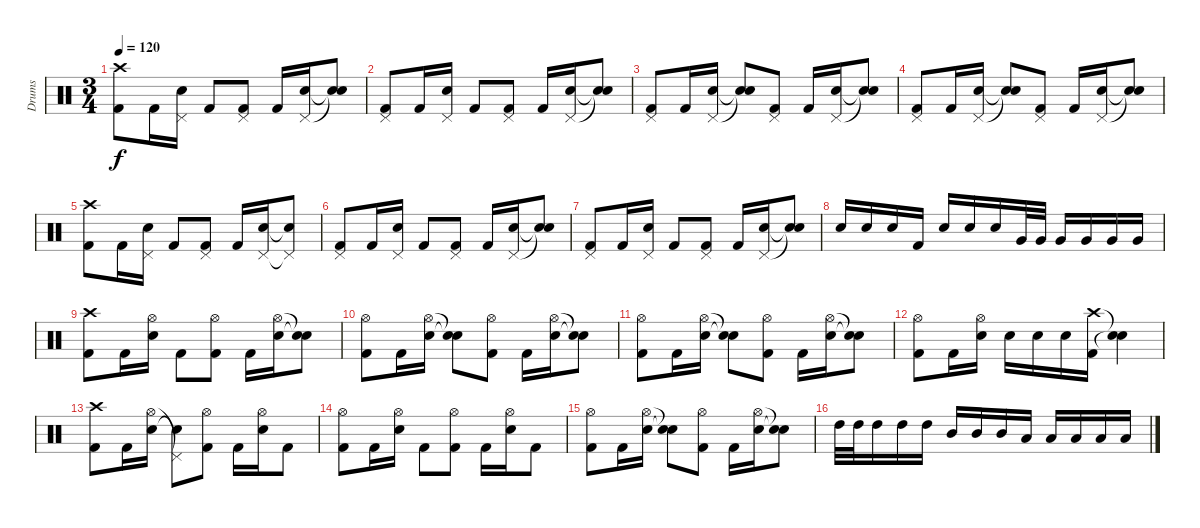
\track ("Drums" "Drums") {instrument percussion}
\staff {score}
\articulation defaults
\ts (3 4)
\tempo 120
\clef neutral
\ks c
("Crash high (hit)" "Kick (hit) 2").8{dy f} "Kick (hit) 2".16 ("Pedal Hi-Hat (hit)" "Electric Snare (hit)").16 "Kick (hit) 2".8 ("Pedal Hi-Hat (hit)" "Kick (hit) 2").8 "Kick (hit) 2".16 ("Pedal Hi-Hat (hit)" "Electric Snare (hit)").16 ("Snare (hit)"{t} "Snare (hit)"{t}).8 |
("Pedal Hi-Hat (hit)" "Kick (hit) 2").8 "Kick (hit) 2".16 ("Pedal Hi-Hat (hit)" "Electric Snare (hit)").16 "Kick (hit) 2".8 ("Pedal Hi-Hat (hit)" "Kick (hit) 2").8 "Kick (hit) 2".16 ("Pedal Hi-Hat (hit)" "Electric Snare (hit)").16 ("Snare (hit)"{t} "Snare (hit)"{t}).8 |
("Pedal Hi-Hat (hit)" "Kick (hit) 2").8 "Kick (hit) 2".16 ("Pedal Hi-Hat (hit)" "Electric Snare (hit)").16 ("Snare (hit)"{t} "Snare (hit)"{t}).8 ("Pedal Hi-Hat (hit)" "Kick (hit) 2").8 "Kick (hit) 2".16 ("Pedal Hi-Hat (hit)" "Electric Snare (hit)").16 ("Snare (hit)"{t} "Snare (hit)"{t}).8 |
("Pedal Hi-Hat (hit)" "Kick (hit) 2").8 "Kick (hit) 2".16 ("Pedal Hi-Hat (hit)" "Electric Snare (hit)").16 ("Snare (hit)"{t} "Snare (hit)"{t}).8 ("Pedal Hi-Hat (hit)" "Kick (hit) 2").8 "Kick (hit) 2".16 ("Pedal Hi-Hat (hit)" "Electric Snare (hit)").16 ("Snare (hit)"{t} "Snare (hit)"{t}).8 |
("Crash high (hit)" "Kick (hit) 2").8 "Kick (hit) 2".16 ("Pedal Hi-Hat (hit)" "Electric Snare (hit)").16 "Kick (hit) 2".8 ("Pedal Hi-Hat (hit)" "Kick (hit) 2").8 "Kick (hit) 2".16 ("Pedal Hi-Hat (hit)" "Electric Snare (hit)").16 ("Pedal Hi-Hat (hit)"{t} "Snare (hit)"{t}).8 |
("Pedal Hi-Hat (hit)" "Kick (hit) 2").8 "Kick (hit) 2".16 ("Pedal Hi-Hat (hit)" "Electric Snare (hit)").16 "Kick (hit) 2".8 ("Pedal Hi-Hat (hit)" "Kick (hit) 2").8 "Kick (hit) 2".16 ("Pedal Hi-Hat (hit)" "Electric Snare (hit)").16 ("Snare (hit)"{t} "Snare (hit)"{t}).8 |
("Pedal Hi-Hat (hit)" "Kick (hit) 2").8 "Kick (hit) 2".16 ("Pedal Hi-Hat (hit)" "Electric Snare (hit)").16 "Kick (hit) 2".8 ("Pedal Hi-Hat (hit)" "Kick (hit) 2").8 "Kick (hit) 2".16 ("Pedal Hi-Hat (hit)" "Electric Snare (hit)").16 ("Snare (hit)"{t} "Snare (hit)"{t}).8 |
"Electric Snare (hit)".16 "Electric Snare (hit)".16 "Electric Snare (hit)".16 "Kick (hit) 2".16 "Electric Snare (hit)".16 "Electric Snare (hit)".16 "Electric Snare (hit)".16 "Very Low Tom (hit)".32 "Very Low Tom (hit)".32 "Very Low Tom (hit)".16 "Very Low Tom (hit)".16 "Very Low Tom (hit)".16 "Very Low Tom (hit)".16 |
("Crash high (hit)" "Kick (hit) 2").8 "Kick (hit) 2".16 ("Hi-Hat (open)" "Electric Snare (hit)").16 "Kick (hit) 2".8 ("Hi-Hat (open)" "Kick (hit) 2").8 "Kick (hit) 2".16 ("Hi-Hat (open)" "Electric Snare (hit)").16 ("Snare (hit)"{t} "Snare (hit)"{t}).8 |
("Hi-Hat (open)" "Kick (hit) 2").8 "Kick (hit) 2".16 ("Hi-Hat (open)" "Electric Snare (hit)").16 ("Snare (hit)"{t} "Snare (hit)"{t}).8 ("Hi-Hat (open)" "Kick (hit) 2").8 "Kick (hit) 2".16 ("Hi-Hat (open)" "Electric Snare (hit)").16 ("Snare (hit)"{t} "Snare (hit)"{t}).8 |
("Hi-Hat (open)" "Kick (hit) 2").8 "Kick (hit) 2".16 ("Hi-Hat (open)" "Electric Snare (hit)").16 ("Snare (hit)"{t} "Snare (hit)"{t}).8 ("Hi-Hat (open)" "Kick (hit) 2").8 "Kick (hit) 2".16 ("Hi-Hat (open)" "Electric Snare (hit)").16 ("Snare (hit)"{t} "Snare (hit)"{t}).8 |
("Hi-Hat (open)" "Kick (hit) 2").8 "Kick (hit) 2".16 ("Hi-Hat (open)" "Electric Snare (hit)").16 "Electric Snare (hit)".16 "Electric Snare (hit)".16 "Electric Snare (hit)".16 ("Crash high (hit)" "Kick (hit) 2").16 ("Snare (hit)"{t} "Snare (hit)"{t}).4 |
("Crash high (hit)" "Kick (hit) 2").8 "Kick (hit) 2".16 ("Hi-Hat (open)" "Electric Snare (hit)").16 ("Pedal Hi-Hat (hit)"{t} "Snare (hit)"{t}).8 ("Hi-Hat (open)" "Kick (hit) 2").8 "Kick (hit) 2".16 ("Hi-Hat (open)" "Electric Snare (hit)").16 "Kick (hit) 2".8 |
("Hi-Hat (open)" "Kick (hit) 2").8 "Kick (hit) 2".16 ("Hi-Hat (open)" "Electric Snare (hit)").16 "Kick (hit) 2".8 ("Hi-Hat (open)" "Kick (hit) 2").8 "Kick (hit) 2".16 ("Hi-Hat (open)" "Electric Snare (hit)").16 "Kick (hit) 2".8 |
("Hi-Hat (open)" "Kick (hit) 2").8 "Kick (hit) 2".16 ("Hi-Hat (open)" "Electric Snare (hit)").16 ("Snare (hit)"{t} "Snare (hit)"{t}).8 ("Hi-Hat (open)" "Kick (hit) 2").8 "Kick (hit) 2".16 ("Hi-Hat (open)" "Electric Snare (hit)").16 ("Snare (hit)"{t} "Snare (hit)"{t}).8 |
"High Tom (hit)".32 "High Tom (hit)".32 "High Tom (hit)".16 "High Tom (hit)".16 "High Tom (hit)".16 "Mid Tom (hit)".16 "Mid Tom (hit)".16 "Mid Tom (hit)".16 "Low Tom (hit)".16 "Low Tom (hit)".16 "Low Tom (hit)".16 "Low Tom (hit)".16 "Low Tom (hit)".16
